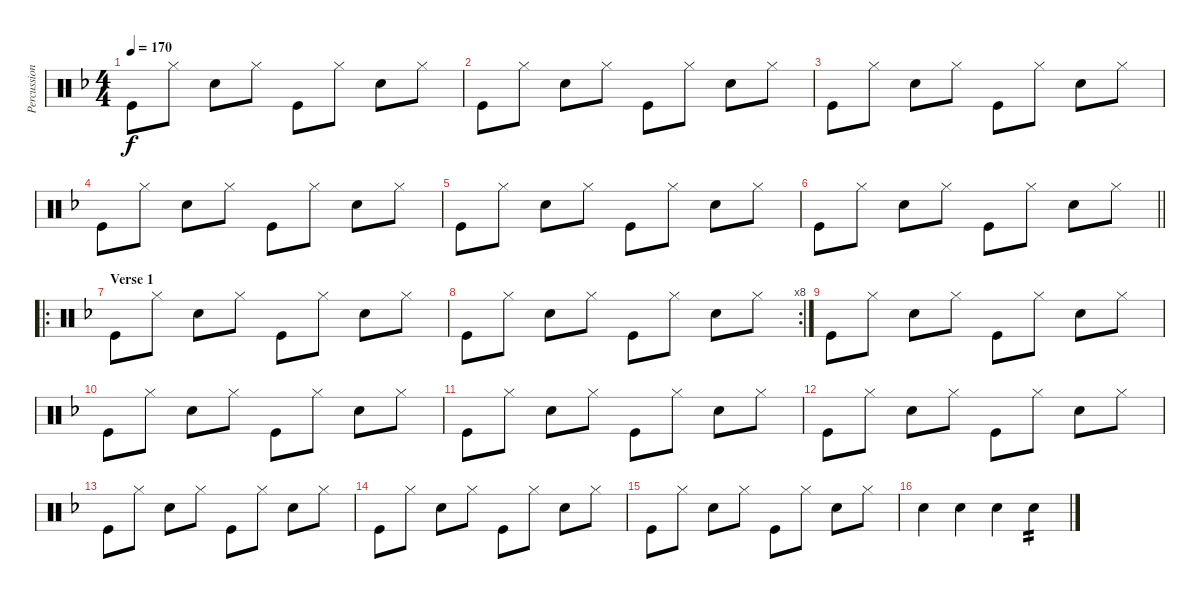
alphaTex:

\track ("Percussion" "Percussion") {instrument percussion}
\staff {score}
\articulation defaults
\ts (4 4)
\tempo 170
\clef neutral
\ks f "Kick (hit)".8{dy f} "Hi-Hat (closed)".8 "Snare (hit) 2".8 "Hi-Hat (closed)".8 "Kick (hit)".8 "Hi-Hat (closed)".8 "Snare (hit) 2".8 "Hi-Hat (closed)".8
|
"Kick (hit)".8 "Hi-Hat (closed)".8 "Snare (hit) 2".8 "Hi-Hat (closed)".8 "Kick (hit)".8 "Hi-Hat (closed)".8 "Snare (hit) 2".8 "Hi-Hat (closed)".8 |
"Kick (hit)".8 "Hi-Hat (closed)".8 "Snare (hit) 2".8 "Hi-Hat (closed)".8 "Kick (hit)".8 "Hi-Hat (closed)".8 "Snare (hit) 2".8 "Hi-Hat (closed)".8 |
"Kick (hit)".8 "Hi-Hat (closed)".8 "Snare (hit) 2".8 "Hi-Hat (closed)".8 "Kick (hit)".8 "Hi-Hat (closed)".8 "Snare (hit) 2".8 "Hi-Hat (closed)".8 |
"Kick (hit)".8 "Hi-Hat (closed)".8 "Snare (hit) 2".8 "Hi-Hat (closed)".8 "Kick (hit)".8 "Hi-Hat (closed)".8 "Snare (hit) 2".8 "Hi-Hat (closed)".8 |
\barLineRight lightlight "Kick (hit)".8 "Hi-Hat (closed)".8 "Snare (hit) 2".8 "Hi-Hat (closed)".8 "Kick (hit)".8 "Hi-Hat (closed)".8 "Snare (hit) 2".8 "Hi-Hat (closed)".8
|
\ro
\section ("" "Verse 1")
"Kick (hit)".8 "Hi-Hat (closed)".8 "Snare (hit) 2".8 "Hi-Hat (closed)".8 "Kick (hit)".8 "Hi-Hat (closed)".8 "Snare (hit) 2".8 "Hi-Hat (closed)".8 |
\rc 8 "Kick (hit)".8 "Hi-Hat (closed)".8 "Snare (hit) 2".8 "Hi-Hat (closed)".8 "Kick (hit)".8 "Hi-Hat (closed)".8 "Snare (hit) 2".8 "Hi-Hat (closed)".8
|
"Kick (hit)".8 "Hi-Hat (closed)".8 "Snare (hit) 2".8 "Hi-Hat (closed)".8 "Kick (hit)".8 "Hi-Hat (closed)".8 "Snare (hit) 2".8 "Hi-Hat (closed)".8 |
"Kick (hit)".8 "Hi-Hat (closed)".8 "Snare (hit) 2".8 "Hi-Hat (closed)".8 "Kick (hit)".8 "Hi-Hat (closed)".8 "Snare (hit) 2".8 "Hi-Hat (closed)".8 |
"Kick (hit)".8 "Hi-Hat (closed)".8 "Snare (hit) 2".8 "Hi-Hat (closed)".8 "Kick (hit)".8 "Hi-Hat (closed)".8 "Snare (hit) 2".8 "Hi-Hat (closed)".8 |
"Kick (hit)".8 "Hi-Hat (closed)".8 "Snare (hit) 2".8 "Hi-Hat (closed)".8 "Kick (hit)".8 "Hi-Hat (closed)".8 "Snare (hit) 2".8 "Hi-Hat (closed)".8 |
"Kick (hit)".8 "Hi-Hat (closed)".8 "Snare (hit) 2".8 "Hi-Hat (closed)".8 "Kick (hit)".8 "Hi-Hat (closed)".8 "Snare (hit) 2".8 "Hi-Hat (closed)".8 |
"Kick (hit)".8 "Hi-Hat (closed)".8 "Snare (hit) 2".8 "Hi-Hat (closed)".8 "Kick (hit)".8 "Hi-Hat (closed)".8 "Snare (hit) 2".8 "Hi-Hat (closed)".8 |
"Kick (hit)".8 "Hi-Hat (closed)".8 "Snare (hit) 2".8 "Hi-Hat (closed)".8 "Kick (hit)".8 "Hi-Hat (closed)".8 "Snare (hit) 2".8 "Hi-Hat (closed)".8 |
"Snare (hit) 2".4 "Snare (hit) 2".4 "Snare (hit) 2".4 "Snare (hit) 2".4{tp 2}
